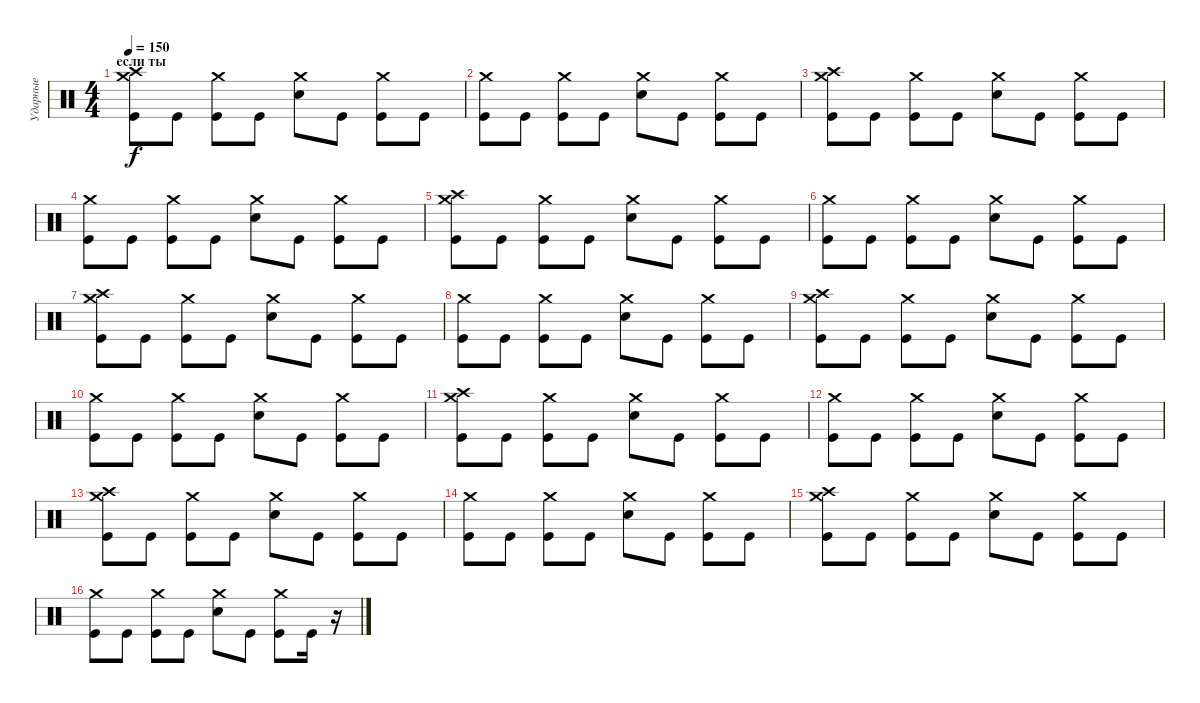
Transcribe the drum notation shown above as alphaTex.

\track ("Ударные" "Ударные") {instrument percussion}
\staff {score}
\articulation defaults
\ts (4 4)
\section ("" "если ты")
\tempo 150
\clef neutral
\ks c
("Crash high (hit)" "Crash medium (hit)" "Kick (hit)").8{dy f} "Kick (hit)".8 ("Crash medium (hit)" "Kick (hit)").8 "Kick (hit)".8 ("Crash medium (hit)" "Electric Snare (hit)").8 "Kick (hit)".8 ("Crash medium (hit)" "Kick (hit)").8 "Kick (hit)".8 |
("Crash medium (hit)" "Kick (hit)").8 "Kick (hit)".8 ("Crash medium (hit)" "Kick (hit)").8 "Kick (hit)".8 ("Crash medium (hit)" "Electric Snare (hit)").8 "Kick (hit)".8 ("Crash medium (hit)" "Kick (hit)").8 "Kick (hit)".8 |
("Crash high (hit)" "Crash medium (hit)" "Kick (hit)").8 "Kick (hit)".8 ("Crash medium (hit)" "Kick (hit)").8 "Kick (hit)".8 ("Crash medium (hit)" "Electric Snare (hit)").8 "Kick (hit)".8 ("Crash medium (hit)" "Kick (hit)").8 "Kick (hit)".8 |
("Crash medium (hit)" "Kick (hit)").8 "Kick (hit)".8 ("Crash medium (hit)" "Kick (hit)").8 "Kick (hit)".8 ("Crash medium (hit)" "Electric Snare (hit)").8 "Kick (hit)".8 ("Crash medium (hit)" "Kick (hit)").8 "Kick (hit)".8 |
("Crash high (hit)" "Crash medium (hit)" "Kick (hit)").8 "Kick (hit)".8 ("Crash medium (hit)" "Kick (hit)").8 "Kick (hit)".8 ("Crash medium (hit)" "Electric Snare (hit)").8 "Kick (hit)".8 ("Crash medium (hit)" "Kick (hit)").8 "Kick (hit)".8 |
("Crash medium (hit)" "Kick (hit)").8 "Kick (hit)".8 ("Crash medium (hit)" "Kick (hit)").8 "Kick (hit)".8 ("Crash medium (hit)" "Electric Snare (hit)").8 "Kick (hit)".8 ("Crash medium (hit)" "Kick (hit)").8 "Kick (hit)".8 |
("Crash high (hit)" "Crash medium (hit)" "Kick (hit)").8 "Kick (hit)".8 ("Crash medium (hit)" "Kick (hit)").8 "Kick (hit)".8 ("Crash medium (hit)" "Electric Snare (hit)").8 "Kick (hit)".8 ("Crash medium (hit)" "Kick (hit)").8 "Kick (hit)".8 |
("Crash medium (hit)" "Kick (hit)").8 "Kick (hit)".8 ("Crash medium (hit)" "Kick (hit)").8 "Kick (hit)".8 ("Crash medium (hit)" "Electric Snare (hit)").8 "Kick (hit)".8 ("Crash medium (hit)" "Kick (hit)").8 "Kick (hit)".8 |
("Crash high (hit)" "Crash medium (hit)" "Kick (hit)").8 "Kick (hit)".8 ("Crash medium (hit)" "Kick (hit)").8 "Kick (hit)".8 ("Crash medium (hit)" "Electric Snare (hit)").8 "Kick (hit)".8 ("Crash medium (hit)" "Kick (hit)").8 "Kick (hit)".8 |
("Crash medium (hit)" "Kick (hit)").8 "Kick (hit)".8 ("Crash medium (hit)" "Kick (hit)").8 "Kick (hit)".8 ("Crash medium (hit)" "Electric Snare (hit)").8 "Kick (hit)".8 ("Crash medium (hit)" "Kick (hit)").8 "Kick (hit)".8 |
("Crash high (hit)" "Crash medium (hit)" "Kick (hit)").8 "Kick (hit)".8 ("Crash medium (hit)" "Kick (hit)").8 "Kick (hit)".8 ("Crash medium (hit)" "Electric Snare (hit)").8 "Kick (hit)".8 ("Crash medium (hit)" "Kick (hit)").8 "Kick (hit)".8 |
("Crash medium (hit)" "Kick (hit)").8 "Kick (hit)".8 ("Crash medium (hit)" "Kick (hit)").8 "Kick (hit)".8 ("Crash medium (hit)" "Electric Snare (hit)").8 "Kick (hit)".8 ("Crash medium (hit)" "Kick (hit)").8 "Kick (hit)".8 |
("Crash high (hit)" "Crash medium (hit)" "Kick (hit)").8 "Kick (hit)".8 ("Crash medium (hit)" "Kick (hit)").8 "Kick (hit)".8 ("Crash medium (hit)" "Electric Snare (hit)").8 "Kick (hit)".8 ("Crash medium (hit)" "Kick (hit)").8 "Kick (hit)".8 |
("Crash medium (hit)" "Kick (hit)").8 "Kick (hit)".8 ("Crash medium (hit)" "Kick (hit)").8 "Kick (hit)".8 ("Crash medium (hit)" "Electric Snare (hit)").8 "Kick (hit)".8 ("Crash medium (hit)" "Kick (hit)").8 "Kick (hit)".8 |
("Crash high (hit)" "Crash medium (hit)" "Kick (hit)").8 "Kick (hit)".8 ("Crash medium (hit)" "Kick (hit)").8 "Kick (hit)".8 ("Crash medium (hit)" "Electric Snare (hit)").8 "Kick (hit)".8 ("Crash medium (hit)" "Kick (hit)").8 "Kick (hit)".8 |
("Crash medium (hit)" "Kick (hit)").8 "Kick (hit)".8 ("Crash medium (hit)" "Kick (hit)").8 "Kick (hit)".8 ("Crash medium (hit)" "Electric Snare (hit)").8 "Kick (hit)".8 ("Crash medium (hit)" "Kick (hit)").8 "Kick (hit)".16 r.16{volume 9}
